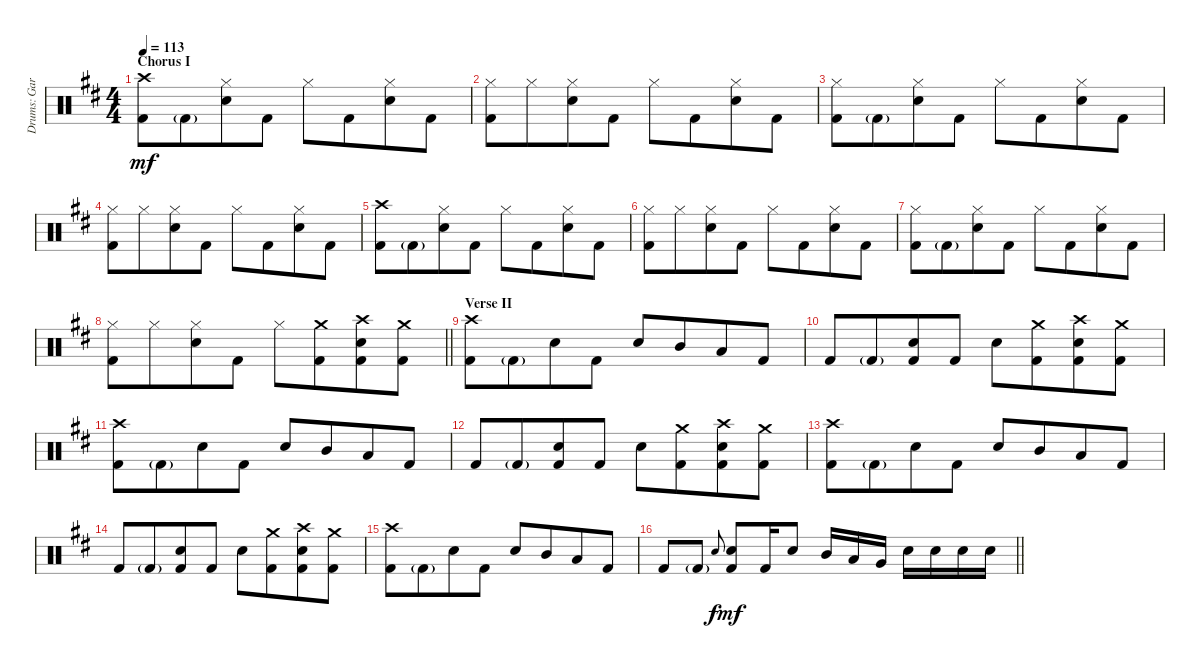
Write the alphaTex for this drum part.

\track ("Drums: Gary" "Drums: Gar") {instrument percussion}
\staff {score}
\articulation defaults
\ts (4 4)
\section ("" "Chorus I")
\tempo 113
\clef neutral
\ks d
("Crash high (hit)" "Kick (hit) 2").8{dy mf} "Kick (hit) 2"{g}.8{beam merge} ("Hi-Hat (closed)" "Snare (hit) 2").8 "Kick (hit) 2".8 "Hi-Hat (closed)".8 "Kick (hit) 2".8{beam merge} ("Hi-Hat (closed)" "Snare (hit) 2").8 "Kick (hit) 2".8 |
("Hi-Hat (closed)" "Kick (hit) 2").8 "Hi-Hat (closed)".8{beam merge} ("Hi-Hat (closed)" "Snare (hit) 2").8 "Kick (hit) 2".8 "Hi-Hat (closed)".8 "Kick (hit) 2".8{beam merge} ("Hi-Hat (closed)" "Snare (hit) 2").8 "Kick (hit) 2".8 |
("Hi-Hat (closed)" "Kick (hit) 2").8 "Kick (hit) 2"{g}.8{beam merge} ("Hi-Hat (closed)" "Snare (hit) 2").8 "Kick (hit) 2".8 "Hi-Hat (closed)".8 "Kick (hit) 2".8{beam merge} ("Hi-Hat (closed)" "Snare (hit) 2").8 "Kick (hit) 2".8 |
("Hi-Hat (closed)" "Kick (hit) 2").8 "Hi-Hat (closed)".8{beam merge} ("Hi-Hat (closed)" "Snare (hit) 2").8 "Kick (hit) 2".8 "Hi-Hat (closed)".8 "Kick (hit) 2".8{beam merge} ("Hi-Hat (closed)" "Snare (hit) 2").8 "Kick (hit) 2".8 |
("Crash high (hit)" "Kick (hit) 2").8 "Kick (hit) 2"{g}.8{beam merge} ("Hi-Hat (closed)" "Snare (hit) 2").8 "Kick (hit) 2".8 "Hi-Hat (closed)".8 "Kick (hit) 2".8{beam merge} ("Hi-Hat (closed)" "Snare (hit) 2").8 "Kick (hit) 2".8 |
("Hi-Hat (closed)" "Kick (hit) 2").8 "Hi-Hat (closed)".8{beam merge} ("Hi-Hat (closed)" "Snare (hit) 2").8 "Kick (hit) 2".8 "Hi-Hat (closed)".8 "Kick (hit) 2".8{beam merge} ("Hi-Hat (closed)" "Snare (hit) 2").8 "Kick (hit) 2".8 |
("Hi-Hat (closed)" "Kick (hit) 2").8 "Kick (hit) 2"{g}.8{beam merge} ("Hi-Hat (closed)" "Snare (hit) 2").8 "Kick (hit) 2".8 "Hi-Hat (closed)".8 "Kick (hit) 2".8{beam merge} ("Hi-Hat (closed)" "Snare (hit) 2").8 "Kick (hit) 2".8 |
\barLineRight lightlight
("Hi-Hat (closed)" "Kick (hit) 2").8 "Hi-Hat (closed)".8{beam merge} ("Hi-Hat (closed)" "Snare (hit) 2").8 "Kick (hit) 2".8 "Hi-Hat (closed)".8 ("Crash medium (hit)" "Kick (hit) 2").8{beam merge} ("Crash high (hit)" "Snare (hit) 2" "Kick (hit) 2").8 ("Crash medium (hit)" "Kick (hit) 2").8 |
\section ("" "Verse II")
("Crash high (hit)" "Kick (hit) 2").8 "Kick (hit) 2"{g}.8{beam merge} "Electric Snare (hit)".8 "Kick (hit) 2".8 "Snare (hit) 2".8 "Mid Tom (hit)".8{beam merge} "Low Tom (hit)".8 "Kick (hit) 2".8 |
"Kick (hit) 2".8 "Kick (hit) 2"{g}.8{beam merge} ("Snare (hit) 2" "Kick (hit) 2").8 "Kick (hit) 2".8 "Electric Snare (hit)".8 ("Crash medium (hit)" "Kick (hit) 2").8{beam merge} ("Crash high (hit)" "Snare (hit) 2" "Kick (hit) 2").8 ("Crash medium (hit)" "Kick (hit) 2").8 |
("Crash high (hit)" "Kick (hit) 2").8 "Kick (hit) 2"{g}.8{beam merge} "Electric Snare (hit)".8 "Kick (hit) 2".8 "Snare (hit) 2".8 "Mid Tom (hit)".8{beam merge} "Low Tom (hit)".8 "Kick (hit) 2".8 |
"Kick (hit) 2".8 "Kick (hit) 2"{g}.8{beam merge} ("Snare (hit) 2" "Kick (hit) 2").8 "Kick (hit) 2".8 "Electric Snare (hit)".8 ("Crash medium (hit)" "Kick (hit) 2").8{beam merge} ("Crash high (hit)" "Snare (hit) 2" "Kick (hit) 2").8 ("Crash medium (hit)" "Kick (hit) 2").8 |
("Crash high (hit)" "Kick (hit) 2").8 "Kick (hit) 2"{g}.8{beam merge} "Electric Snare (hit)".8 "Kick (hit) 2".8 "Snare (hit) 2".8 "Mid Tom (hit)".8{beam merge} "Low Tom (hit)".8 "Kick (hit) 2".8 |
"Kick (hit) 2".8 "Kick (hit) 2"{g}.8{beam merge} ("Snare (hit) 2" "Kick (hit) 2").8 "Kick (hit) 2".8 "Electric Snare (hit)".8 ("Crash medium (hit)" "Kick (hit) 2").8{beam merge} ("Crash high (hit)" "Snare (hit) 2" "Kick (hit) 2").8 ("Crash medium (hit)" "Kick (hit) 2").8 |
("Crash high (hit)" "Kick (hit) 2").8 "Kick (hit) 2"{g}.8{beam merge} "Electric Snare (hit)".8 "Kick (hit) 2".8 "Snare (hit) 2".8 "Mid Tom (hit)".8{beam merge} "Low Tom (hit)".8 "Kick (hit) 2".8 |
\barLineRight lightlight "Kick (hit) 2".8 "Kick (hit) 2"{g}.8 "Electric Snare (hit)".8{gr onbeat dy f beam merge}
("Snare (hit) 2" "Kick (hit) 2").8{dy mf} "Kick (hit) 2".16 "Electric Snare (hit)".8 "Mid Tom (hit)".16 "Low Tom (hit)".16 "Very Low Tom (hit)".16 "Electric Snare (hit)".16 "Electric Snare (hit)".16 "Electric Snare (hit)".16 "Electric Snare (hit)".16
